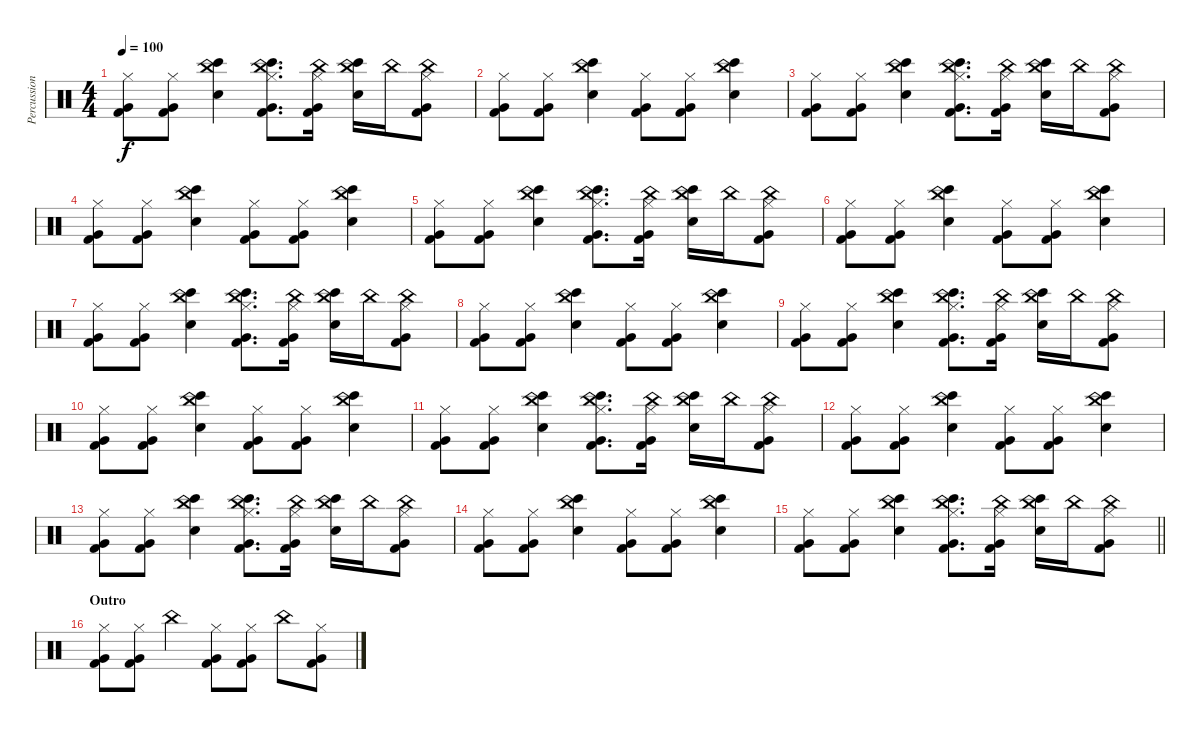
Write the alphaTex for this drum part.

\track ("Percussion" "Percussion") {instrument percussion}
\staff {score}
\articulation defaults
\ts (4 4)
\tempo 100
\clef neutral
\ks c
("Hi-Hat (closed)" "Kick (hit) 2" "Very Low Tom (hit)").8{dy f} ("Hi-Hat (closed)" "Very Low Tom (hit)" "Kick (hit) 2").8 ("Bongo High (hit)" "China (hit)" "Hand Clap (hit)").4 ("China (hit)" "Bongo High (hit)" "Hi-Hat (closed)" "Kick (hit) 2" "Very Low Tom (hit)").8{d} ("China (hit)" "Hi-Hat (closed)" "Kick (hit) 2" "Very Low Tom (hit)").16 ("Bongo High (hit)" "China (hit)" "Hand Clap (hit)").16 "China (hit)".16 ("China (hit)" "Hi-Hat (closed)" "Kick (hit) 2" "Very Low Tom (hit)").8 |
("Hi-Hat (closed)" "Kick (hit) 2" "Very Low Tom (hit)").8 ("Hi-Hat (closed)" "Very Low Tom (hit)" "Kick (hit) 2").8 ("Bongo High (hit)" "China (hit)" "Hand Clap (hit)").4 ("Hi-Hat (closed)" "Kick (hit) 2" "Very Low Tom (hit)").8 ("Hi-Hat (closed)" "Very Low Tom (hit)" "Kick (hit) 2").8 ("Hand Clap (hit)" "Bongo High (hit)" "China (hit)").4 |
("Hi-Hat (closed)" "Kick (hit) 2" "Very Low Tom (hit)").8 ("Hi-Hat (closed)" "Very Low Tom (hit)" "Kick (hit) 2").8 ("Bongo High (hit)" "China (hit)" "Hand Clap (hit)").4 ("China (hit)" "Bongo High (hit)" "Hi-Hat (closed)" "Kick (hit) 2" "Very Low Tom (hit)").8{d} ("China (hit)" "Hi-Hat (closed)" "Kick (hit) 2" "Very Low Tom (hit)").16 ("Bongo High (hit)" "China (hit)" "Hand Clap (hit)").16 "China (hit)".16 ("China (hit)" "Hi-Hat (closed)" "Kick (hit) 2" "Very Low Tom (hit)").8 |
("Hi-Hat (closed)" "Kick (hit) 2" "Very Low Tom (hit)").8 ("Hi-Hat (closed)" "Very Low Tom (hit)" "Kick (hit) 2").8 ("Bongo High (hit)" "China (hit)" "Hand Clap (hit)").4 ("Hi-Hat (closed)" "Kick (hit) 2" "Very Low Tom (hit)").8 ("Hi-Hat (closed)" "Very Low Tom (hit)" "Kick (hit) 2").8 ("Hand Clap (hit)" "Bongo High (hit)" "China (hit)").4 |
("Hi-Hat (closed)" "Kick (hit) 2" "Very Low Tom (hit)").8 ("Hi-Hat (closed)" "Very Low Tom (hit)" "Kick (hit) 2").8 ("Bongo High (hit)" "China (hit)" "Hand Clap (hit)").4 ("China (hit)" "Bongo High (hit)" "Hi-Hat (closed)" "Kick (hit) 2" "Very Low Tom (hit)").8{d} ("China (hit)" "Hi-Hat (closed)" "Kick (hit) 2" "Very Low Tom (hit)").16 ("Hand Clap (hit)" "Bongo High (hit)" "China (hit)").16 "China (hit)".16 ("China (hit)" "Hi-Hat (closed)" "Kick (hit) 2" "Very Low Tom (hit)").8 |
("Hi-Hat (closed)" "Kick (hit) 2" "Very Low Tom (hit)").8 ("Hi-Hat (closed)" "Very Low Tom (hit)" "Kick (hit) 2").8 ("Bongo High (hit)" "China (hit)" "Hand Clap (hit)").4 ("Hi-Hat (closed)" "Kick (hit) 2" "Very Low Tom (hit)").8 ("Hi-Hat (closed)" "Very Low Tom (hit)" "Kick (hit) 2").8 ("Bongo High (hit)" "China (hit)" "Hand Clap (hit)").4 |
("Hi-Hat (closed)" "Kick (hit) 2" "Very Low Tom (hit)").8 ("Hi-Hat (closed)" "Very Low Tom (hit)" "Kick (hit) 2").8 ("Bongo High (hit)" "China (hit)" "Hand Clap (hit)").4 ("China (hit)" "Bongo High (hit)" "Hi-Hat (closed)" "Kick (hit) 2" "Very Low Tom (hit)").8{d} ("China (hit)" "Hi-Hat (closed)" "Kick (hit) 2" "Very Low Tom (hit)").16 ("Bongo High (hit)" "China (hit)" "Hand Clap (hit)").16 "China (hit)".16 ("China (hit)" "Hi-Hat (closed)" "Kick (hit) 2" "Very Low Tom (hit)").8 |
("Hi-Hat (closed)" "Kick (hit) 2" "Very Low Tom (hit)").8 ("Hi-Hat (closed)" "Very Low Tom (hit)" "Kick (hit) 2").8 ("Bongo High (hit)" "China (hit)" "Hand Clap (hit)").4 ("Hi-Hat (closed)" "Kick (hit) 2" "Very Low Tom (hit)").8 ("Hi-Hat (closed)" "Very Low Tom (hit)" "Kick (hit) 2").8 ("Hand Clap (hit)" "Bongo High (hit)" "China (hit)").4 |
("Hi-Hat (closed)" "Kick (hit) 2" "Very Low Tom (hit)").8 ("Hi-Hat (closed)" "Very Low Tom (hit)" "Kick (hit) 2").8 ("Bongo High (hit)" "China (hit)" "Hand Clap (hit)").4 ("China (hit)" "Bongo High (hit)" "Hi-Hat (closed)" "Kick (hit) 2" "Very Low Tom (hit)").8{d} ("China (hit)" "Hi-Hat (closed)" "Kick (hit) 2" "Very Low Tom (hit)").16 ("Hand Clap (hit)" "Bongo High (hit)" "China (hit)").16 "China (hit)".16 ("China (hit)" "Hi-Hat (closed)" "Kick (hit) 2" "Very Low Tom (hit)").8 |
("Hi-Hat (closed)" "Kick (hit) 2" "Very Low Tom (hit)").8 ("Hi-Hat (closed)" "Very Low Tom (hit)" "Kick (hit) 2").8 ("Bongo High (hit)" "China (hit)" "Hand Clap (hit)").4 ("Hi-Hat (closed)" "Kick (hit) 2" "Very Low Tom (hit)").8 ("Hi-Hat (closed)" "Very Low Tom (hit)" "Kick (hit) 2").8 ("Bongo High (hit)" "China (hit)" "Hand Clap (hit)").4 |
("Hi-Hat (closed)" "Kick (hit) 2" "Very Low Tom (hit)").8 ("Hi-Hat (closed)" "Very Low Tom (hit)" "Kick (hit) 2").8 ("Bongo High (hit)" "China (hit)" "Hand Clap (hit)").4 ("China (hit)" "Bongo High (hit)" "Hi-Hat (closed)" "Kick (hit) 2" "Very Low Tom (hit)").8{d} ("China (hit)" "Hi-Hat (closed)" "Kick (hit) 2" "Very Low Tom (hit)").16 ("Bongo High (hit)" "China (hit)" "Hand Clap (hit)").16 "China (hit)".16 ("China (hit)" "Hi-Hat (closed)" "Kick (hit) 2" "Very Low Tom (hit)").8 |
("Hi-Hat (closed)" "Kick (hit) 2" "Very Low Tom (hit)").8 ("Hi-Hat (closed)" "Very Low Tom (hit)" "Kick (hit) 2").8 ("Hand Clap (hit)" "Bongo High (hit)" "China (hit)").4 ("Hi-Hat (closed)" "Kick (hit) 2" "Very Low Tom (hit)").8 ("Hi-Hat (closed)" "Very Low Tom (hit)" "Kick (hit) 2").8 ("Bongo High (hit)" "China (hit)" "Hand Clap (hit)").4 |
("Hi-Hat (closed)" "Kick (hit) 2" "Very Low Tom (hit)").8 ("Hi-Hat (closed)" "Very Low Tom (hit)" "Kick (hit) 2").8 ("Bongo High (hit)" "China (hit)" "Hand Clap (hit)").4 ("China (hit)" "Bongo High (hit)" "Hi-Hat (closed)" "Kick (hit) 2" "Very Low Tom (hit)").8{d} ("China (hit)" "Hi-Hat (closed)" "Kick (hit) 2" "Very Low Tom (hit)").16 ("Bongo High (hit)" "China (hit)" "Hand Clap (hit)").16 "China (hit)".16 ("China (hit)" "Hi-Hat (closed)" "Kick (hit) 2" "Very Low Tom (hit)").8 |
("Hi-Hat (closed)" "Kick (hit) 2" "Very Low Tom (hit)").8 ("Hi-Hat (closed)" "Very Low Tom (hit)" "Kick (hit) 2").8 ("Bongo High (hit)" "China (hit)" "Hand Clap (hit)").4 ("Hi-Hat (closed)" "Kick (hit) 2" "Very Low Tom (hit)").8 ("Hi-Hat (closed)" "Very Low Tom (hit)" "Kick (hit) 2").8 ("Hand Clap (hit)" "Bongo High (hit)" "China (hit)").4 |
\barLineRight lightlight
("Hi-Hat (closed)" "Kick (hit) 2" "Very Low Tom (hit)").8 ("Hi-Hat (closed)" "Very Low Tom (hit)" "Kick (hit) 2").8 ("Bongo High (hit)" "China (hit)" "Hand Clap (hit)").4 ("China (hit)" "Bongo High (hit)" "Hi-Hat (closed)" "Kick (hit) 2" "Very Low Tom (hit)").8{d} ("China (hit)" "Hi-Hat (closed)" "Kick (hit) 2" "Very Low Tom (hit)").16 ("Bongo High (hit)" "China (hit)" "Hand Clap (hit)").16 "China (hit)".16 ("China (hit)" "Hi-Hat (closed)" "Kick (hit) 2" "Very Low Tom (hit)").8 |
\section ("" "Outro")
("Hi-Hat (closed)" "Very Low Tom (hit)" "Kick (hit) 2").8 ("Hi-Hat (closed)" "Kick (hit) 2" "Very Low Tom (hit)").8 "China (hit)".4 ("Hi-Hat (closed)" "Kick (hit) 2" "Very Low Tom (hit)").8 ("Hi-Hat (closed)" "Very Low Tom (hit)" "Kick (hit) 2").8 "China (hit)".8 ("Hi-Hat (closed)" "Kick (hit) 2" "Very Low Tom (hit)").8
